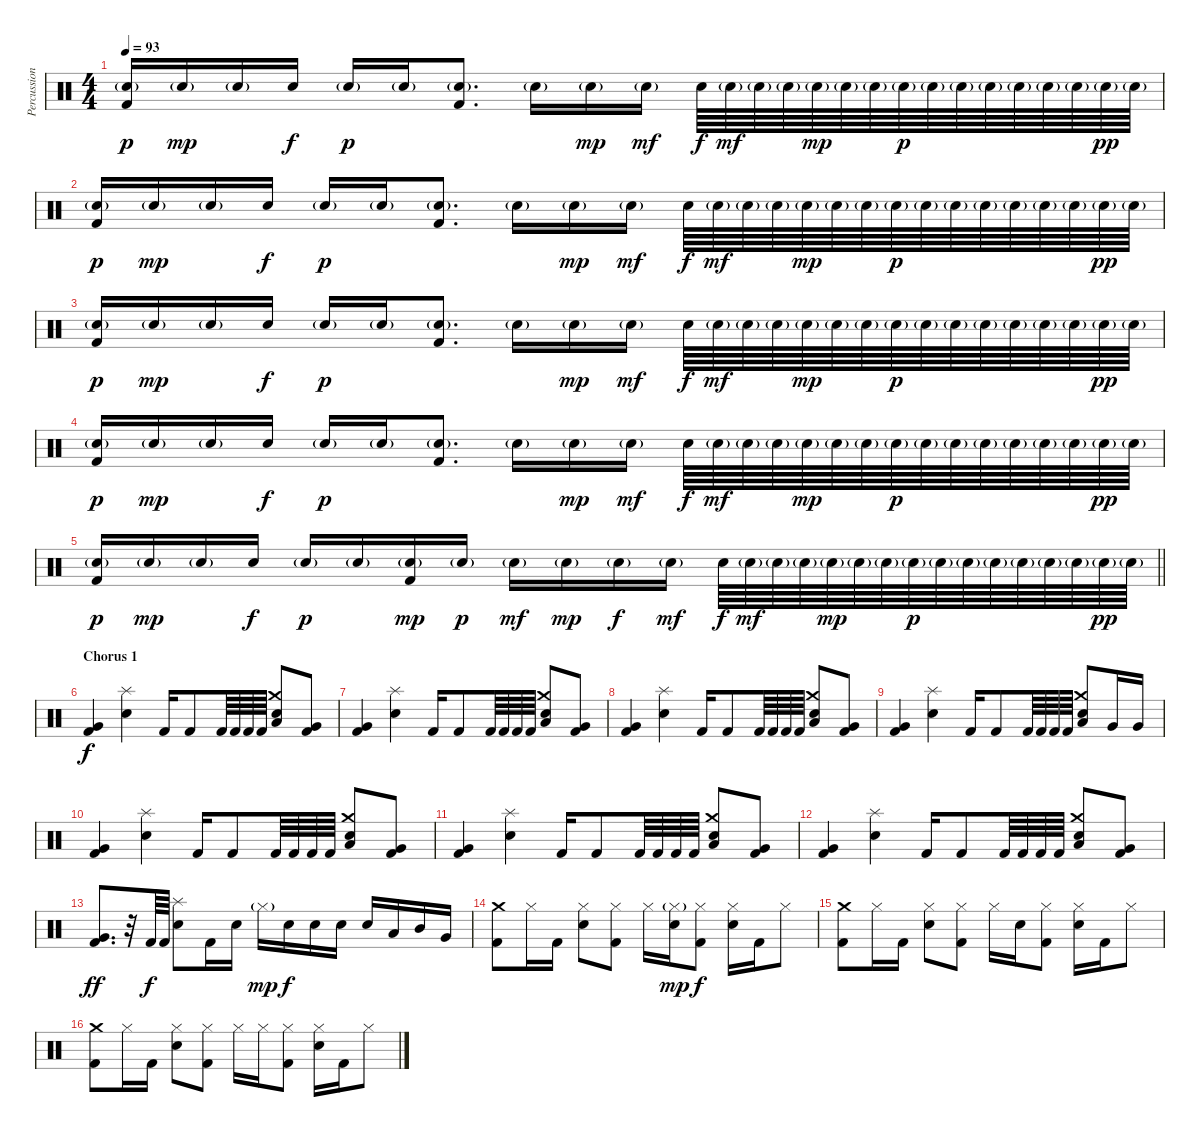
\track ("Percussion" "Percussion") {instrument percussion}
\staff {score}
\articulation defaults
\ts (4 4)
\tempo 93
\clef neutral
\ks c
("Snare (hit) 2"{g} "Kick (hit) 2").16{dy p} "Snare (hit) 2"{g}.16{dy mp} "Snare (hit) 2"{g}.16 "Snare (hit) 2".16{dy f} "Snare (hit) 2"{g}.16{dy p} "Snare (hit) 2"{g}.16 ("Snare (hit) 2"{g} "Kick (hit) 2").8{d} "Snare (hit) 2"{g}.16 "Snare (hit) 2"{g}.16{dy mp} "Snare (hit) 2"{g}.16{dy mf} "Snare (hit) 2".64{dy f} "Snare (hit) 2"{g}.64{dy mf} "Snare (hit) 2"{g}.64 "Snare (hit) 2"{g}.64 "Snare (hit) 2"{g}.64{dy mp} "Snare (hit) 2"{g}.64 "Snare (hit) 2"{g}.64 "Snare (hit) 2"{g}.64{dy p} "Snare (hit) 2"{g}.64 "Snare (hit) 2"{g}.64 "Snare (hit) 2"{g}.64 "Snare (hit) 2"{g}.64 "Snare (hit) 2"{g}.64 "Snare (hit) 2"{g}.64 "Snare (hit) 2"{g}.64{dy pp} "Snare (hit) 2"{g}.64 |
("Snare (hit) 2"{g} "Kick (hit) 2").16{dy p} "Snare (hit) 2"{g}.16{dy mp} "Snare (hit) 2"{g}.16 "Snare (hit) 2".16{dy f} "Snare (hit) 2"{g}.16{dy p} "Snare (hit) 2"{g}.16 ("Snare (hit) 2"{g} "Kick (hit) 2").8{d} "Snare (hit) 2"{g}.16 "Snare (hit) 2"{g}.16{dy mp} "Snare (hit) 2"{g}.16{dy mf} "Snare (hit) 2".64{dy f} "Snare (hit) 2"{g}.64{dy mf} "Snare (hit) 2"{g}.64 "Snare (hit) 2"{g}.64 "Snare (hit) 2"{g}.64{dy mp} "Snare (hit) 2"{g}.64 "Snare (hit) 2"{g}.64 "Snare (hit) 2"{g}.64{dy p} "Snare (hit) 2"{g}.64 "Snare (hit) 2"{g}.64 "Snare (hit) 2"{g}.64 "Snare (hit) 2"{g}.64 "Snare (hit) 2"{g}.64 "Snare (hit) 2"{g}.64 "Snare (hit) 2"{g}.64{dy pp} "Snare (hit) 2"{g}.64 |
("Snare (hit) 2"{g} "Kick (hit) 2").16{dy p} "Snare (hit) 2"{g}.16{dy mp} "Snare (hit) 2"{g}.16 "Snare (hit) 2".16{dy f} "Snare (hit) 2"{g}.16{dy p} "Snare (hit) 2"{g}.16 ("Snare (hit) 2"{g} "Kick (hit) 2").8{d} "Snare (hit) 2"{g}.16 "Snare (hit) 2"{g}.16{dy mp} "Snare (hit) 2"{g}.16{dy mf} "Snare (hit) 2".64{dy f} "Snare (hit) 2"{g}.64{dy mf} "Snare (hit) 2"{g}.64 "Snare (hit) 2"{g}.64 "Snare (hit) 2"{g}.64{dy mp} "Snare (hit) 2"{g}.64 "Snare (hit) 2"{g}.64 "Snare (hit) 2"{g}.64{dy p} "Snare (hit) 2"{g}.64 "Snare (hit) 2"{g}.64 "Snare (hit) 2"{g}.64 "Snare (hit) 2"{g}.64 "Snare (hit) 2"{g}.64 "Snare (hit) 2"{g}.64 "Snare (hit) 2"{g}.64{dy pp} "Snare (hit) 2"{g}.64 |
("Snare (hit) 2"{g} "Kick (hit) 2").16{dy p} "Snare (hit) 2"{g}.16{dy mp} "Snare (hit) 2"{g}.16 "Snare (hit) 2".16{dy f} "Snare (hit) 2"{g}.16{dy p} "Snare (hit) 2"{g}.16 ("Snare (hit) 2"{g} "Kick (hit) 2").8{d} "Snare (hit) 2"{g}.16 "Snare (hit) 2"{g}.16{dy mp} "Snare (hit) 2"{g}.16{dy mf} "Snare (hit) 2".64{dy f} "Snare (hit) 2"{g}.64{dy mf} "Snare (hit) 2"{g}.64 "Snare (hit) 2"{g}.64 "Snare (hit) 2"{g}.64{dy mp} "Snare (hit) 2"{g}.64 "Snare (hit) 2"{g}.64 "Snare (hit) 2"{g}.64{dy p} "Snare (hit) 2"{g}.64 "Snare (hit) 2"{g}.64 "Snare (hit) 2"{g}.64 "Snare (hit) 2"{g}.64 "Snare (hit) 2"{g}.64 "Snare (hit) 2"{g}.64 "Snare (hit) 2"{g}.64{dy pp} "Snare (hit) 2"{g}.64 |
\barLineRight lightlight
("Snare (hit) 2"{g} "Kick (hit) 2").16{dy p} "Snare (hit) 2"{g}.16{dy mp} "Snare (hit) 2"{g}.16 "Snare (hit) 2".16{dy f} "Snare (hit) 2"{g}.16{dy p} "Snare (hit) 2"{g}.16 ("Snare (hit) 2"{g} "Kick (hit) 2").16{dy mp} "Snare (hit) 2"{g}.16{dy p} "Snare (hit) 2"{g}.16{dy mf} "Snare (hit) 2"{g}.16{dy mp} "Snare (hit) 2"{g}.16{dy f} "Snare (hit) 2"{g}.16{dy mf} "Snare (hit) 2".64{dy f} "Snare (hit) 2"{g}.64{dy mf} "Snare (hit) 2"{g}.64 "Snare (hit) 2"{g}.64 "Snare (hit) 2"{g}.64{dy mp} "Snare (hit) 2"{g}.64 "Snare (hit) 2"{g}.64 "Snare (hit) 2"{g}.64{dy p} "Snare (hit) 2"{g}.64 "Snare (hit) 2"{g}.64 "Snare (hit) 2"{g}.64 "Snare (hit) 2"{g}.64 "Snare (hit) 2"{g}.64 "Snare (hit) 2"{g}.64 "Snare (hit) 2"{g}.64{dy pp} "Snare (hit) 2"{g}.64 |
\section ("" "Chorus 1")
("Very Low Tom (hit)" "Kick (hit) 2").4{dy f} ("Splash (hit)" "Snare (hit) 2").4 "Kick (hit) 2".16 "Kick (hit) 2".8 "Kick (hit) 2".64 "Kick (hit) 2".64 "Kick (hit) 2".64 "Kick (hit) 2".64 ("Crash medium (hit)" "Snare (hit) 2" "Low Tom (hit)").8 ("Very Low Tom (hit)" "Kick (hit) 2").8 |
("Very Low Tom (hit)" "Kick (hit) 2").4 ("Splash (hit)" "Snare (hit) 2").4 "Kick (hit) 2".16 "Kick (hit) 2".8 "Kick (hit) 2".64 "Kick (hit) 2".64 "Kick (hit) 2".64 "Kick (hit) 2".64 ("Crash medium (hit)" "Snare (hit) 2" "Low Tom (hit)").8 ("Very Low Tom (hit)" "Kick (hit) 2").8 |
("Very Low Tom (hit)" "Kick (hit) 2").4 ("Splash (hit)" "Snare (hit) 2").4 "Kick (hit) 2".16 "Kick (hit) 2".8 "Kick (hit) 2".64 "Kick (hit) 2".64 "Kick (hit) 2".64 "Kick (hit) 2".64 ("Crash medium (hit)" "Snare (hit) 2" "Low Tom (hit)").8 ("Very Low Tom (hit)" "Kick (hit) 2").8 |
("Very Low Tom (hit)" "Kick (hit) 2").4 ("Splash (hit)" "Snare (hit) 2").4 "Kick (hit) 2".16 "Kick (hit) 2".8 "Kick (hit) 2".64 "Kick (hit) 2".64 "Kick (hit) 2".64 "Kick (hit) 2".64 ("Crash medium (hit)" "Snare (hit) 2" "Low Tom (hit)").8 "Very Low Tom (hit)".16 "Very Low Tom (hit)".16 |
("Very Low Tom (hit)" "Kick (hit) 2").4 ("Splash (hit)" "Snare (hit) 2").4 "Kick (hit) 2".16 "Kick (hit) 2".8 "Kick (hit) 2".64 "Kick (hit) 2".64 "Kick (hit) 2".64 "Kick (hit) 2".64 ("Crash medium (hit)" "Snare (hit) 2" "Low Tom (hit)").8 ("Very Low Tom (hit)" "Kick (hit) 2").8 |
("Very Low Tom (hit)" "Kick (hit) 2").4 ("Splash (hit)" "Snare (hit) 2").4 "Kick (hit) 2".16 "Kick (hit) 2".8 "Kick (hit) 2".64 "Kick (hit) 2".64 "Kick (hit) 2".64 "Kick (hit) 2".64 ("Crash medium (hit)" "Snare (hit) 2" "Low Tom (hit)").8 ("Very Low Tom (hit)" "Kick (hit) 2").8 |
("Very Low Tom (hit)" "Kick (hit) 2").4 ("Splash (hit)" "Snare (hit) 2").4 "Kick (hit) 2".16 "Kick (hit) 2".8 "Kick (hit) 2".64 "Kick (hit) 2".64 "Kick (hit) 2".64 "Kick (hit) 2".64 ("Crash medium (hit)" "Snare (hit) 2" "Low Tom (hit)").8 ("Very Low Tom (hit)" "Kick (hit) 2").8 |
("Very Low Tom (hit)" "Kick (hit) 2").8{d dy ff} r.32 "Kick (hit) 2".64{dy f} "Kick (hit) 2".64 ("Splash (hit)" "Snare (hit) 2").8 "Kick (hit) 2".16 "Snare (hit) 2".16 "Hi-Hat (closed)"{g}.16{dy mp} "Snare (hit) 2".16{dy f} "Snare (hit) 2".16 "Snare (hit) 2".16 "Snare (hit) 2".16 "Low Tom (hit)".16 "Mid Tom (hit)".16 "Very Low Tom (hit)".16 |
("Crash medium (hit)" "Kick (hit) 2").8 "Hi-Hat (closed)".16 "Kick (hit) 2".16 ("Hi-Hat (closed)" "Snare (hit) 2").8 ("Hi-Hat (closed)" "Kick (hit) 2").8 "Hi-Hat (closed)".16 ("Hi-Hat (closed)"{g} "Snare (hit) 2").16{dy mp} ("Hi-Hat (closed)" "Kick (hit) 2").8{dy f} ("Hi-Hat (closed)" "Snare (hit) 2").16 "Kick (hit) 2".16 "Hi-Hat (closed)".8 |
("Crash medium (hit)" "Kick (hit) 2").8 "Hi-Hat (closed)".16 "Kick (hit) 2".16 ("Hi-Hat (closed)" "Snare (hit) 2").8 ("Hi-Hat (closed)" "Kick (hit) 2").8 "Hi-Hat (closed)".16 "Snare (hit) 2".16 ("Hi-Hat (closed)" "Kick (hit) 2").8 ("Hi-Hat (closed)" "Snare (hit) 2").16 "Kick (hit) 2".16 "Hi-Hat (closed)".8 |
("Crash medium (hit)" "Kick (hit) 2").8 "Hi-Hat (closed)".16 "Kick (hit) 2".16 ("Hi-Hat (closed)" "Snare (hit) 2").8 ("Hi-Hat (closed)" "Kick (hit) 2").8 "Hi-Hat (closed)".16 "Hi-Hat (closed)".16 ("Hi-Hat (closed)" "Kick (hit) 2").8 ("Hi-Hat (closed)" "Snare (hit) 2").16 "Kick (hit) 2".16 "Hi-Hat (closed)".8
